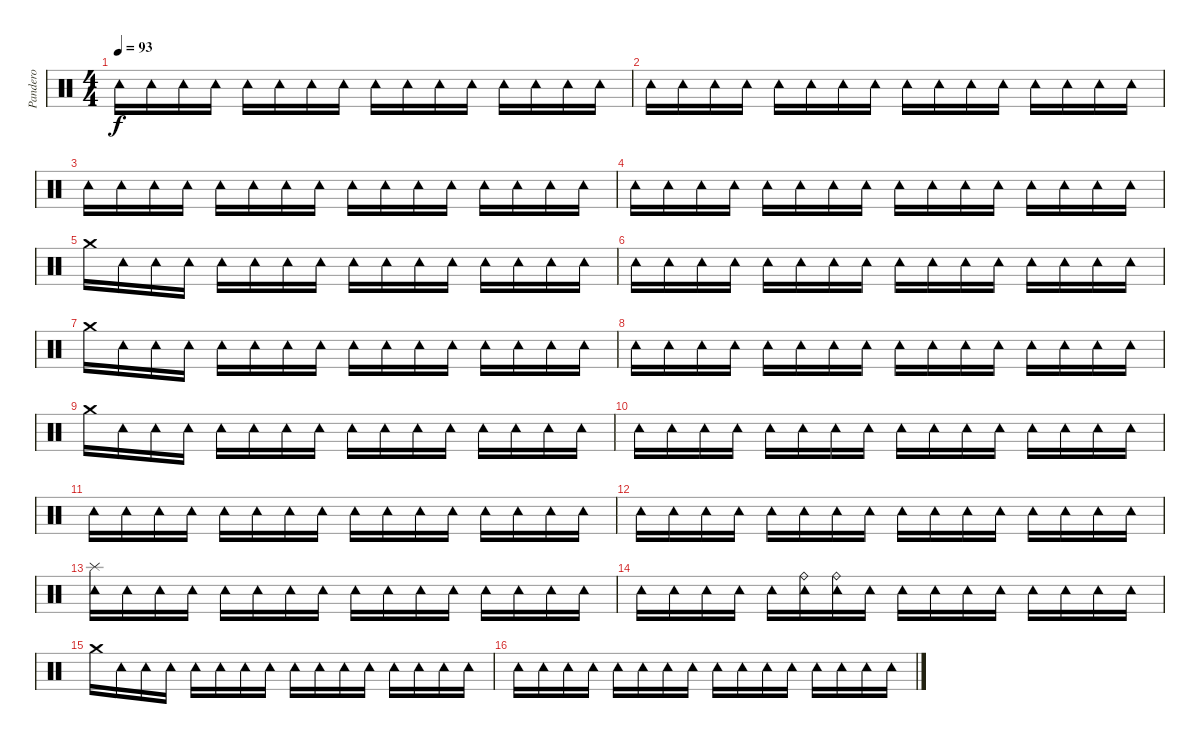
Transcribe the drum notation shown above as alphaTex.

\track ("Pandero" "Pandero") {instrument percussion bank 1}
\staff {score}
\articulation defaults
\ts (4 4)
\tempo 93
\clef neutral
\ks c "Tambourine (hit)".16{dy f} "Tambourine (hit)".16 "Tambourine (hit)".16 "Tambourine (hit)".16 "Tambourine (hit)".16 "Tambourine (hit)".16 "Tambourine (hit)".16 "Tambourine (hit)".16 "Tambourine (hit)".16 "Tambourine (hit)".16 "Tambourine (hit)".16 "Tambourine (hit)".16 "Tambourine (hit)".16 "Tambourine (hit)".16 "Tambourine (hit)".16 "Tambourine (hit)".16
|
"Tambourine (hit)".16 "Tambourine (hit)".16 "Tambourine (hit)".16 "Tambourine (hit)".16 "Tambourine (hit)".16 "Tambourine (hit)".16 "Tambourine (hit)".16 "Tambourine (hit)".16 "Tambourine (hit)".16 "Tambourine (hit)".16 "Tambourine (hit)".16 "Tambourine (hit)".16 "Tambourine (hit)".16 "Tambourine (hit)".16 "Tambourine (hit)".16 "Tambourine (hit)".16 |
"Tambourine (hit)".16 "Tambourine (hit)".16 "Tambourine (hit)".16 "Tambourine (hit)".16 "Tambourine (hit)".16 "Tambourine (hit)".16 "Tambourine (hit)".16 "Tambourine (hit)".16 "Tambourine (hit)".16 "Tambourine (hit)".16 "Tambourine (hit)".16 "Tambourine (hit)".16 "Tambourine (hit)".16 "Tambourine (hit)".16 "Tambourine (hit)".16 "Tambourine (hit)".16 |
"Tambourine (hit)".16 "Tambourine (hit)".16 "Tambourine (hit)".16 "Tambourine (hit)".16 "Tambourine (hit)".16 "Tambourine (hit)".16 "Tambourine (hit)".16 "Tambourine (hit)".16 "Tambourine (hit)".16 "Tambourine (hit)".16 "Tambourine (hit)".16 "Tambourine (hit)".16 "Tambourine (hit)".16 "Tambourine (hit)".16 "Tambourine (hit)".16 "Tambourine (hit)".16 |
"Crash medium (hit)".16 "Tambourine (hit)".16 "Tambourine (hit)".16 "Tambourine (hit)".16 "Tambourine (hit)".16 "Tambourine (hit)".16 "Tambourine (hit)".16 "Tambourine (hit)".16 "Tambourine (hit)".16 "Tambourine (hit)".16 "Tambourine (hit)".16 "Tambourine (hit)".16 "Tambourine (hit)".16 "Tambourine (hit)".16 "Tambourine (hit)".16 "Tambourine (hit)".16 |
"Tambourine (hit)".16 "Tambourine (hit)".16 "Tambourine (hit)".16 "Tambourine (hit)".16 "Tambourine (hit)".16 "Tambourine (hit)".16 "Tambourine (hit)".16 "Tambourine (hit)".16 "Tambourine (hit)".16 "Tambourine (hit)".16 "Tambourine (hit)".16 "Tambourine (hit)".16 "Tambourine (hit)".16 "Tambourine (hit)".16 "Tambourine (hit)".16 "Tambourine (hit)".16 |
"Crash medium (hit)".16 "Tambourine (hit)".16 "Tambourine (hit)".16 "Tambourine (hit)".16 "Tambourine (hit)".16 "Tambourine (hit)".16 "Tambourine (hit)".16 "Tambourine (hit)".16 "Tambourine (hit)".16 "Tambourine (hit)".16 "Tambourine (hit)".16 "Tambourine (hit)".16 "Tambourine (hit)".16 "Tambourine (hit)".16 "Tambourine (hit)".16 "Tambourine (hit)".16 |
"Tambourine (hit)".16 "Tambourine (hit)".16 "Tambourine (hit)".16 "Tambourine (hit)".16 "Tambourine (hit)".16 "Tambourine (hit)".16 "Tambourine (hit)".16 "Tambourine (hit)".16 "Tambourine (hit)".16 "Tambourine (hit)".16 "Tambourine (hit)".16 "Tambourine (hit)".16 "Tambourine (hit)".16 "Tambourine (hit)".16 "Tambourine (hit)".16 "Tambourine (hit)".16 |
"Crash medium (hit)".16 "Tambourine (hit)".16 "Tambourine (hit)".16 "Tambourine (hit)".16 "Tambourine (hit)".16 "Tambourine (hit)".16 "Tambourine (hit)".16 "Tambourine (hit)".16 "Tambourine (hit)".16 "Tambourine (hit)".16 "Tambourine (hit)".16 "Tambourine (hit)".16 "Tambourine (hit)".16 "Tambourine (hit)".16 "Tambourine (hit)".16 "Tambourine (hit)".16 |
"Tambourine (hit)".16 "Tambourine (hit)".16 "Tambourine (hit)".16 "Tambourine (hit)".16 "Tambourine (hit)".16 "Tambourine (hit)".16 "Tambourine (hit)".16 "Tambourine (hit)".16 "Tambourine (hit)".16 "Tambourine (hit)".16 "Tambourine (hit)".16 "Tambourine (hit)".16 "Tambourine (hit)".16 "Tambourine (hit)".16 "Tambourine (hit)".16 "Tambourine (hit)".16 |
"Tambourine (hit)".16 "Tambourine (hit)".16 "Tambourine (hit)".16 "Tambourine (hit)".16 "Tambourine (hit)".16 "Tambourine (hit)".16 "Tambourine (hit)".16 "Tambourine (hit)".16 "Tambourine (hit)".16 "Tambourine (hit)".16 "Tambourine (hit)".16 "Tambourine (hit)".16 "Tambourine (hit)".16 "Tambourine (hit)".16 "Tambourine (hit)".16 "Tambourine (hit)".16 |
"Tambourine (hit)".16 "Tambourine (hit)".16 "Tambourine (hit)".16 "Tambourine (hit)".16 "Tambourine (hit)".16 "Tambourine (hit)".16 "Tambourine (hit)".16 "Tambourine (hit)".16 "Tambourine (hit)".16 "Tambourine (hit)".16 "Tambourine (hit)".16 "Tambourine (hit)".16 "Tambourine (hit)".16 "Tambourine (hit)".16 "Tambourine (hit)".16 "Tambourine (hit)".16 |
("Tambourine (hit)" "Splash (hit)").16 "Tambourine (hit)".16 "Tambourine (hit)".16 "Tambourine (hit)".16 "Tambourine (hit)".16 "Tambourine (hit)".16 "Tambourine (hit)".16 "Tambourine (hit)".16 "Tambourine (hit)".16 "Tambourine (hit)".16 "Tambourine (hit)".16 "Tambourine (hit)".16 "Tambourine (hit)".16 "Tambourine (hit)".16 "Tambourine (hit)".16 "Tambourine (hit)".16 |
"Tambourine (hit)".16 "Tambourine (hit)".16 "Tambourine (hit)".16 "Tambourine (hit)".16 "Tambourine (hit)".16 ("Ride (bell)" "Tambourine (hit)").16 ("Tambourine (hit)" "Ride (bell)").16 "Tambourine (hit)".16 "Tambourine (hit)".16 "Tambourine (hit)".16 "Tambourine (hit)".16 "Tambourine (hit)".16 "Tambourine (hit)".16 "Tambourine (hit)".16 "Tambourine (hit)".16 "Tambourine (hit)".16 |
"Crash medium (hit)".16 "Tambourine (hit)".16 "Tambourine (hit)".16 "Tambourine (hit)".16 "Tambourine (hit)".16 "Tambourine (hit)".16 "Tambourine (hit)".16 "Tambourine (hit)".16 "Tambourine (hit)".16 "Tambourine (hit)".16 "Tambourine (hit)".16 "Tambourine (hit)".16 "Tambourine (hit)".16 "Tambourine (hit)".16 "Tambourine (hit)".16 "Tambourine (hit)".16 |
"Tambourine (hit)".16 "Tambourine (hit)".16 "Tambourine (hit)".16 "Tambourine (hit)".16 "Tambourine (hit)".16 "Tambourine (hit)".16 "Tambourine (hit)".16 "Tambourine (hit)".16 "Tambourine (hit)".16 "Tambourine (hit)".16 "Tambourine (hit)".16 "Tambourine (hit)".16 "Tambourine (hit)".16 "Tambourine (hit)".16 "Tambourine (hit)".16 "Tambourine (hit)".16
